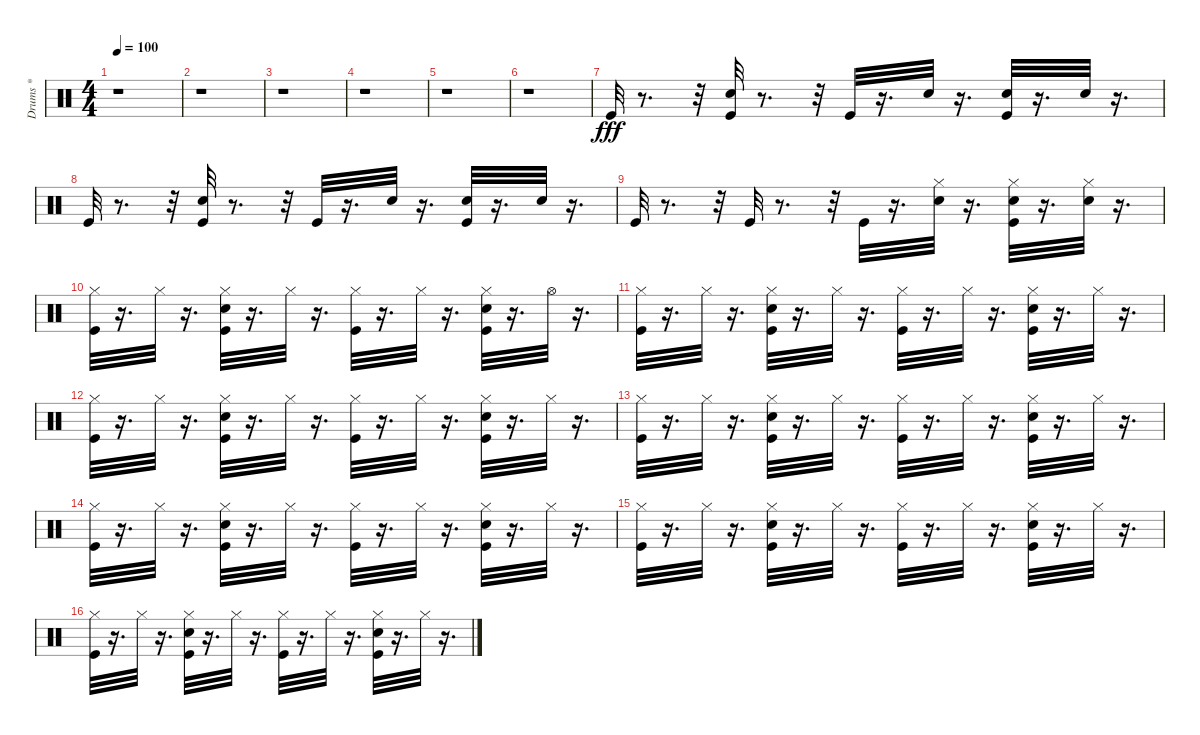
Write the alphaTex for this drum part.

\track ("Drums *" "Drums *") {instrument percussion}
\staff {score}
\articulation defaults
\ts (4 4)
\tempo 100
\clef neutral
\ks c
r.1{dy fff} |
r.1 |
r.1 |
r.1 |
r.1 |
r.1 |
"Kick (hit)".32 r.8{d} r.32 ("Kick (hit)" "Electric Snare (hit)").32 r.8{d} r.32 "Kick (hit)".32 r.16{d} "Electric Snare (hit)".32 r.16{d} ("Kick (hit)" "Electric Snare (hit)").32 r.16{d} "Electric Snare (hit)".32 r.16{d} |
"Kick (hit)".32 r.8{d} r.32 ("Kick (hit)" "Electric Snare (hit)").32 r.8{d} r.32 "Kick (hit)".32 r.16{d} "Electric Snare (hit)".32 r.16{d} ("Electric Snare (hit)" "Kick (hit)").32 r.16{d} "Electric Snare (hit)".32 r.16{d} |
"Kick (hit)".32 r.8{d} r.32 "Kick (hit)".32 r.8{d} r.32 "Kick (hit)".32 r.16{d} ("Hi-Hat (closed)" "Electric Snare (hit)").32 r.16{d} ("Hi-Hat (closed)" "Kick (hit)" "Electric Snare (hit)").32 r.16{d} ("Electric Snare (hit)" "Hi-Hat (closed)").32 r.16{d} |
("Kick (hit)" "Hi-Hat (closed)").32 r.16{d} "Hi-Hat (closed)".32 r.16{d} ("Kick (hit)" "Hi-Hat (closed)" "Electric Snare (hit)").32 r.16{d} "Hi-Hat (closed)".32 r.16{d} ("Kick (hit)" "Hi-Hat (closed)").32 r.16{d} "Hi-Hat (closed)".32 r.16{d} ("Kick (hit)" "Electric Snare (hit)" "Hi-Hat (closed)").32 r.16{d} "Hi-Hat (open)".32 r.16{d} |
("Kick (hit)" "Hi-Hat (closed)").32 r.16{d} "Hi-Hat (closed)".32 r.16{d} ("Electric Snare (hit)" "Hi-Hat (closed)" "Kick (hit)").32 r.16{d} "Hi-Hat (closed)".32 r.16{d} ("Hi-Hat (closed)" "Kick (hit)").32 r.16{d} "Hi-Hat (closed)".32 r.16{d} ("Electric Snare (hit)" "Kick (hit)" "Hi-Hat (closed)").32 r.16{d} "Hi-Hat (closed)".32 r.16{d} |
("Hi-Hat (closed)" "Kick (hit)").32 r.16{d} "Hi-Hat (closed)".32 r.16{d} ("Kick (hit)" "Hi-Hat (closed)" "Electric Snare (hit)").32 r.16{d} "Hi-Hat (closed)".32 r.16{d} ("Kick (hit)" "Hi-Hat (closed)").32 r.16{d} "Hi-Hat (closed)".32 r.16{d} ("Kick (hit)" "Electric Snare (hit)" "Hi-Hat (closed)").32 r.16{d} "Hi-Hat (closed)".32 r.16{d} |
("Kick (hit)" "Hi-Hat (closed)").32 r.16{d} "Hi-Hat (closed)".32 r.16{d} ("Kick (hit)" "Electric Snare (hit)" "Hi-Hat (closed)").32 r.16{d} "Hi-Hat (closed)".32 r.16{d} ("Kick (hit)" "Hi-Hat (closed)").32 r.16{d} "Hi-Hat (closed)".32 r.16{d} ("Electric Snare (hit)" "Kick (hit)" "Hi-Hat (closed)").32 r.16{d} "Hi-Hat (closed)".32 r.16{d} |
("Hi-Hat (closed)" "Kick (hit)").32 r.16{d} "Hi-Hat (closed)".32 r.16{d} ("Hi-Hat (closed)" "Electric Snare (hit)" "Kick (hit)").32 r.16{d} "Hi-Hat (closed)".32 r.16{d} ("Kick (hit)" "Hi-Hat (closed)").32 r.16{d} "Hi-Hat (closed)".32 r.16{d} ("Kick (hit)" "Hi-Hat (closed)" "Electric Snare (hit)").32 r.16{d} "Hi-Hat (closed)".32 r.16{d} |
("Kick (hit)" "Hi-Hat (closed)").32 r.16{d} "Hi-Hat (closed)".32 r.16{d} ("Kick (hit)" "Electric Snare (hit)" "Hi-Hat (closed)").32 r.16{d} "Hi-Hat (closed)".32 r.16{d} ("Hi-Hat (closed)" "Kick (hit)").32 r.16{d} "Hi-Hat (closed)".32 r.16{d} ("Hi-Hat (closed)" "Kick (hit)" "Electric Snare (hit)").32 r.16{d} "Hi-Hat (closed)".32 r.16{d} |
("Hi-Hat (closed)" "Kick (hit)").32 r.16{d} "Hi-Hat (closed)".32 r.16{d} ("Electric Snare (hit)" "Kick (hit)" "Hi-Hat (closed)").32 r.16{d} "Hi-Hat (closed)".32 r.16{d} ("Kick (hit)" "Hi-Hat (closed)").32 r.16{d} "Hi-Hat (closed)".32 r.16{d} ("Electric Snare (hit)" "Kick (hit)" "Hi-Hat (closed)").32 r.16{d} "Hi-Hat (closed)".32 r.16{d}
